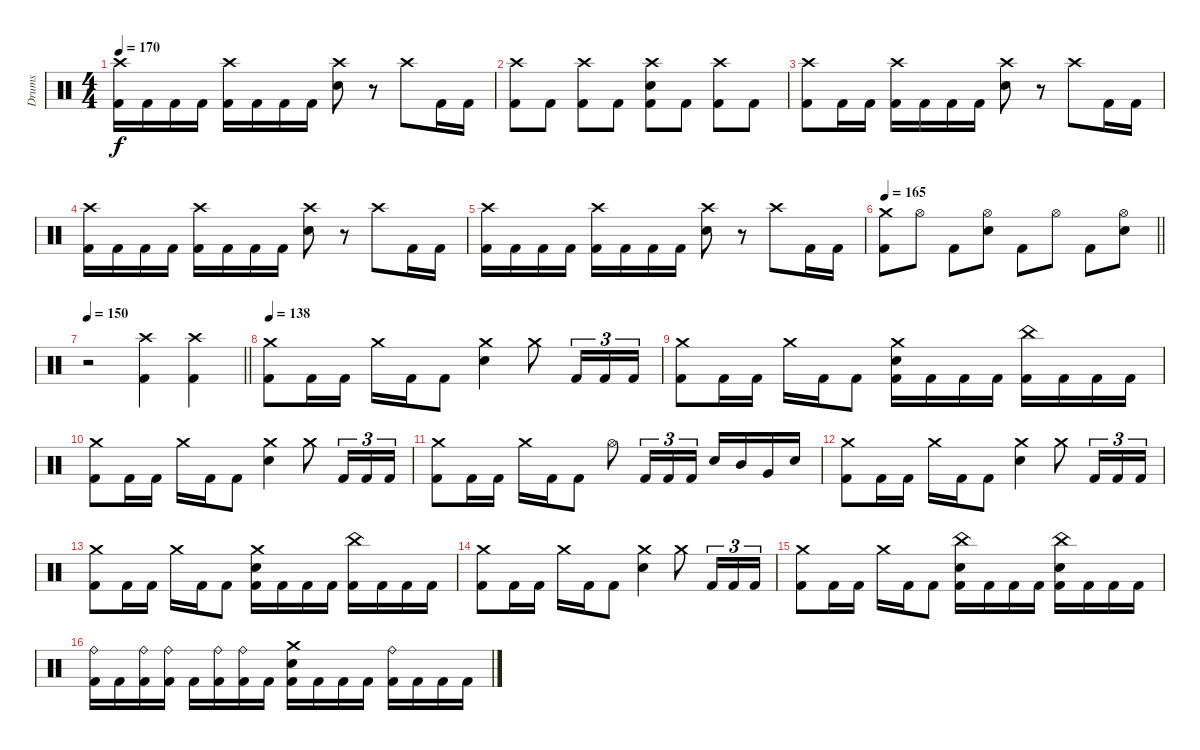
\track ("Drums" "Drums") {instrument percussion}
\staff {score}
\articulation defaults
\ts (4 4)
\tempo 170
\clef neutral
\ks c
("Crash high (hit)" "Kick (hit) 2").16{dy f} "Kick (hit) 2".16 "Kick (hit) 2".16 "Kick (hit) 2".16 ("Crash high (hit)" "Kick (hit) 2").16 "Kick (hit) 2".16 "Kick (hit) 2".16 "Kick (hit) 2".16 ("Crash high (hit)" "Electric Snare (hit)").8 r.8 "Crash high (hit)".8 "Kick (hit) 2".16 "Kick (hit) 2".16 |
("Crash high (hit)" "Kick (hit) 2").8 "Kick (hit) 2".8 ("Crash high (hit)" "Kick (hit) 2").8 "Kick (hit) 2".8 ("Crash high (hit)" "Electric Snare (hit)" "Kick (hit) 2").8 "Kick (hit) 2".8 ("Crash high (hit)" "Kick (hit) 2").8 "Kick (hit) 2".8 |
("Crash high (hit)" "Kick (hit) 2").8 "Kick (hit) 2".16 "Kick (hit) 2".16 ("Crash high (hit)" "Kick (hit) 2").16 "Kick (hit) 2".16 "Kick (hit) 2".16 "Kick (hit) 2".16 ("Crash high (hit)" "Electric Snare (hit)").8 r.8 "Crash high (hit)".8 "Kick (hit) 2".16 "Kick (hit) 2".16 |
("Crash high (hit)" "Kick (hit) 2").16 "Kick (hit) 2".16 "Kick (hit) 2".16 "Kick (hit) 2".16 ("Crash high (hit)" "Kick (hit) 2").16 "Kick (hit) 2".16 "Kick (hit) 2".16 "Kick (hit) 2".16 ("Crash high (hit)" "Electric Snare (hit)").8 r.8 "Crash high (hit)".8 "Kick (hit) 2".16 "Kick (hit) 2".16 |
("Crash high (hit)" "Kick (hit) 2").16 "Kick (hit) 2".16 "Kick (hit) 2".16 "Kick (hit) 2".16 ("Crash high (hit)" "Kick (hit) 2").16 "Kick (hit) 2".16 "Kick (hit) 2".16 "Kick (hit) 2".16 ("Crash high (hit)" "Electric Snare (hit)").8 r.8 "Crash high (hit)".8 "Kick (hit) 2".16 "Kick (hit) 2".16 |
\tempo 165
\barLineRight lightlight
("Crash medium (hit)" "Kick (hit) 2").8 "Hi-Hat (open)".8 "Kick (hit) 2".8 ("Hi-Hat (open)" "Electric Snare (hit)").8 "Kick (hit) 2".8 "Hi-Hat (open)".8 "Kick (hit) 2".8 ("Hi-Hat (open)" "Electric Snare (hit)").8 |
\tempo 150
\barLineRight lightlight
r.2 ("Crash high (hit)" "Kick (hit) 2").4 ("Crash high (hit)" "Kick (hit) 2").4 |
\tempo 138
("Crash medium (hit)" "Kick (hit) 2").8 "Kick (hit) 2".16 "Kick (hit) 2".16 "Crash medium (hit)".16 "Kick (hit) 2".16 "Kick (hit) 2".8 ("Crash medium (hit)" "Electric Snare (hit)").4 "Crash medium (hit)".8 "Kick (hit) 2".16{tu (3 2)} "Kick (hit) 2".16{tu (3 2)} "Kick (hit) 2".16{tu (3 2)} |
("Crash medium (hit)" "Kick (hit) 2").8 "Kick (hit) 2".16 "Kick (hit) 2".16 "Crash medium (hit)".16 "Kick (hit) 2".16 "Kick (hit) 2".8 ("Crash medium (hit)" "Electric Snare (hit)" "Kick (hit) 2").16 "Kick (hit) 2".16 "Kick (hit) 2".16 "Kick (hit) 2".16 ("China (hit)" "Kick (hit) 2").16 "Kick (hit) 2".16 "Kick (hit) 2".16 "Kick (hit) 2".16 |
("Crash medium (hit)" "Kick (hit) 2").8 "Kick (hit) 2".16 "Kick (hit) 2".16 "Crash medium (hit)".16 "Kick (hit) 2".16 "Kick (hit) 2".8 ("Crash medium (hit)" "Electric Snare (hit)").4 "Crash medium (hit)".8 "Kick (hit) 2".16{tu (3 2)} "Kick (hit) 2".16{tu (3 2)} "Kick (hit) 2".16{tu (3 2)} |
("Crash medium (hit)" "Kick (hit) 2").8 "Kick (hit) 2".16 "Kick (hit) 2".16 "Crash medium (hit)".16 "Kick (hit) 2".16 "Kick (hit) 2".8 "Hi-Hat (open)".8 "Kick (hit) 2".16{tu (3 2)} "Kick (hit) 2".16{tu (3 2)} "Kick (hit) 2".16{tu (3 2)} "Electric Snare (hit)".16 "Mid Tom (hit)".16 "Very Low Tom (hit)".16 "Electric Snare (hit)".16 |
("Crash medium (hit)" "Kick (hit) 2").8 "Kick (hit) 2".16 "Kick (hit) 2".16 "Crash medium (hit)".16 "Kick (hit) 2".16 "Kick (hit) 2".8 ("Crash medium (hit)" "Electric Snare (hit)").4 "Crash medium (hit)".8 "Kick (hit) 2".16{tu (3 2)} "Kick (hit) 2".16{tu (3 2)} "Kick (hit) 2".16{tu (3 2)} |
("Crash medium (hit)" "Kick (hit) 2").8 "Kick (hit) 2".16 "Kick (hit) 2".16 "Crash medium (hit)".16 "Kick (hit) 2".16 "Kick (hit) 2".8 ("Crash medium (hit)" "Electric Snare (hit)" "Kick (hit) 2").16 "Kick (hit) 2".16 "Kick (hit) 2".16 "Kick (hit) 2".16 ("China (hit)" "Kick (hit) 2").16 "Kick (hit) 2".16 "Kick (hit) 2".16 "Kick (hit) 2".16 |
("Crash medium (hit)" "Kick (hit) 2").8 "Kick (hit) 2".16 "Kick (hit) 2".16 "Crash medium (hit)".16 "Kick (hit) 2".16 "Kick (hit) 2".8 ("Crash medium (hit)" "Electric Snare (hit)").4 "Crash medium (hit)".8 "Kick (hit) 2".16{tu (3 2)} "Kick (hit) 2".16{tu (3 2)} "Kick (hit) 2".16{tu (3 2)} |
("Crash medium (hit)" "Kick (hit) 2").8 "Kick (hit) 2".16 "Kick (hit) 2".16 "Crash medium (hit)".16 "Kick (hit) 2".16 "Kick (hit) 2".8 ("China (hit)" "Electric Snare (hit)" "Kick (hit) 2").16 "Kick (hit) 2".16 "Kick (hit) 2".16 "Kick (hit) 2".16 ("China (hit)" "Electric Snare (hit)" "Kick (hit) 2").16 "Kick (hit) 2".16 "Kick (hit) 2".16 "Kick (hit) 2".16 |
("Ride (bell)" "Kick (hit) 2").16 "Kick (hit) 2".16 ("Ride (bell)" "Kick (hit) 2").16 ("Ride (bell)" "Kick (hit) 2").16 "Kick (hit) 2".16 ("Ride (bell)" "Kick (hit) 2").16 ("Ride (bell)" "Kick (hit) 2").16 "Kick (hit) 2".16 ("Crash medium (hit)" "Electric Snare (hit)" "Kick (hit) 2").16 "Kick (hit) 2".16 "Kick (hit) 2".16 "Kick (hit) 2".16 ("Ride (bell)" "Kick (hit) 2").16 "Kick (hit) 2".16 "Kick (hit) 2".16 "Kick (hit) 2".16
